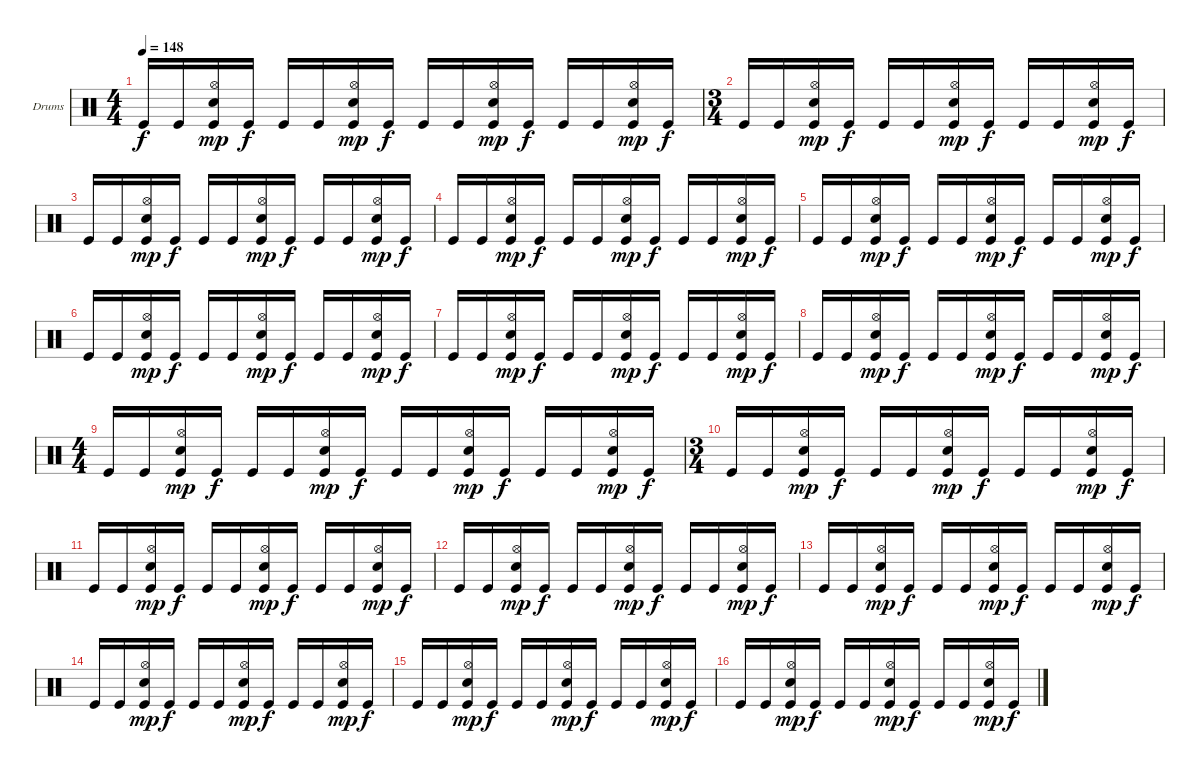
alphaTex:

\bracketExtendMode groupsimilarinstruments
\firstSystemTrackNameOrientation horizontal
\otherSystemsTrackNameOrientation horizontal
\track ("Drumkit" "Drums") {instrument percussion}
\staff {score}
\articulation defaults
\ts (4 4)
\tempo 148
\clef neutral
\ks c "Kick (hit)".16{dy f} "Kick (hit)".16
("Hi-Hat (open)" "Kick (hit)" "Snare (hit) 2").16{dy mp} "Kick (hit)".16{dy f} "Kick (hit)".16 "Kick (hit)".16 ("Hi-Hat (open)" "Kick (hit)" "Snare (hit) 2").16{dy mp} "Kick (hit)".16{dy f} "Kick (hit)".16 "Kick (hit)".16 ("Hi-Hat (open)" "Kick (hit)" "Snare (hit) 2").16{dy mp} "Kick (hit)".16{dy f} "Kick (hit)".16 "Kick (hit)".16 ("Hi-Hat (open)" "Kick (hit)" "Snare (hit) 2").16{dy mp} "Kick (hit)".16{dy f} |
\ts (3 4)
\beaming (8 2 2 2)
"Kick (hit)".16 "Kick (hit)".16 ("Hi-Hat (open)" "Kick (hit)" "Snare (hit) 2").16{dy mp} "Kick (hit)".16{dy f} "Kick (hit)".16 "Kick (hit)".16 ("Hi-Hat (open)" "Kick (hit)" "Snare (hit) 2").16{dy mp} "Kick (hit)".16{dy f} "Kick (hit)".16 "Kick (hit)".16 ("Hi-Hat (open)" "Kick (hit)" "Snare (hit) 2").16{dy mp} "Kick (hit)".16{dy f} |
"Kick (hit)".16 "Kick (hit)".16 ("Hi-Hat (open)" "Kick (hit)" "Snare (hit) 2").16{dy mp} "Kick (hit)".16{dy f} "Kick (hit)".16 "Kick (hit)".16 ("Hi-Hat (open)" "Kick (hit)" "Snare (hit) 2").16{dy mp} "Kick (hit)".16{dy f} "Kick (hit)".16 "Kick (hit)".16 ("Hi-Hat (open)" "Kick (hit)" "Snare (hit) 2").16{dy mp} "Kick (hit)".16{dy f} |
"Kick (hit)".16 "Kick (hit)".16 ("Hi-Hat (open)" "Kick (hit)" "Snare (hit) 2").16{dy mp} "Kick (hit)".16{dy f} "Kick (hit)".16 "Kick (hit)".16 ("Hi-Hat (open)" "Kick (hit)" "Snare (hit) 2").16{dy mp} "Kick (hit)".16{dy f} "Kick (hit)".16 "Kick (hit)".16 ("Hi-Hat (open)" "Kick (hit)" "Snare (hit) 2").16{dy mp} "Kick (hit)".16{dy f} |
"Kick (hit)".16 "Kick (hit)".16 ("Hi-Hat (open)" "Kick (hit)" "Snare (hit) 2").16{dy mp} "Kick (hit)".16{dy f} "Kick (hit)".16 "Kick (hit)".16 ("Hi-Hat (open)" "Kick (hit)" "Snare (hit) 2").16{dy mp} "Kick (hit)".16{dy f} "Kick (hit)".16 "Kick (hit)".16 ("Hi-Hat (open)" "Kick (hit)" "Snare (hit) 2").16{dy mp} "Kick (hit)".16{dy f} |
"Kick (hit)".16 "Kick (hit)".16 ("Hi-Hat (open)" "Kick (hit)" "Snare (hit) 2").16{dy mp} "Kick (hit)".16{dy f} "Kick (hit)".16 "Kick (hit)".16 ("Hi-Hat (open)" "Kick (hit)" "Snare (hit) 2").16{dy mp} "Kick (hit)".16{dy f} "Kick (hit)".16 "Kick (hit)".16 ("Hi-Hat (open)" "Kick (hit)" "Snare (hit) 2").16{dy mp} "Kick (hit)".16{dy f} |
"Kick (hit)".16 "Kick (hit)".16 ("Hi-Hat (open)" "Kick (hit)" "Snare (hit) 2").16{dy mp} "Kick (hit)".16{dy f} "Kick (hit)".16 "Kick (hit)".16 ("Hi-Hat (open)" "Kick (hit)" "Snare (hit) 2").16{dy mp} "Kick (hit)".16{dy f} "Kick (hit)".16 "Kick (hit)".16 ("Hi-Hat (open)" "Kick (hit)" "Snare (hit) 2").16{dy mp} "Kick (hit)".16{dy f} |
"Kick (hit)".16 "Kick (hit)".16 ("Hi-Hat (open)" "Kick (hit)" "Snare (hit) 2").16{dy mp} "Kick (hit)".16{dy f} "Kick (hit)".16 "Kick (hit)".16 ("Hi-Hat (open)" "Kick (hit)" "Snare (hit) 2").16{dy mp} "Kick (hit)".16{dy f} "Kick (hit)".16 "Kick (hit)".16 ("Hi-Hat (open)" "Kick (hit)" "Snare (hit) 2").16{dy mp} "Kick (hit)".16{dy f} |
\ts (4 4)
\beaming (8 2 2 2 2)
"Kick (hit)".16 "Kick (hit)".16 ("Hi-Hat (open)" "Kick (hit)" "Snare (hit) 2").16{dy mp} "Kick (hit)".16{dy f} "Kick (hit)".16 "Kick (hit)".16 ("Hi-Hat (open)" "Kick (hit)" "Snare (hit) 2").16{dy mp} "Kick (hit)".16{dy f} "Kick (hit)".16 "Kick (hit)".16 ("Hi-Hat (open)" "Kick (hit)" "Snare (hit) 2").16{dy mp} "Kick (hit)".16{dy f} "Kick (hit)".16 "Kick (hit)".16 ("Hi-Hat (open)" "Kick (hit)" "Snare (hit) 2").16{dy mp} "Kick (hit)".16{dy f} |
\ts (3 4)
\beaming (8 2 2 2)
"Kick (hit)".16 "Kick (hit)".16 ("Hi-Hat (open)" "Kick (hit)" "Snare (hit) 2").16{dy mp} "Kick (hit)".16{dy f} "Kick (hit)".16 "Kick (hit)".16 ("Hi-Hat (open)" "Kick (hit)" "Snare (hit) 2").16{dy mp} "Kick (hit)".16{dy f} "Kick (hit)".16 "Kick (hit)".16 ("Hi-Hat (open)" "Kick (hit)" "Snare (hit) 2").16{dy mp} "Kick (hit)".16{dy f} |
"Kick (hit)".16 "Kick (hit)".16 ("Hi-Hat (open)" "Kick (hit)" "Snare (hit) 2").16{dy mp} "Kick (hit)".16{dy f} "Kick (hit)".16 "Kick (hit)".16 ("Hi-Hat (open)" "Kick (hit)" "Snare (hit) 2").16{dy mp} "Kick (hit)".16{dy f} "Kick (hit)".16 "Kick (hit)".16 ("Hi-Hat (open)" "Kick (hit)" "Snare (hit) 2").16{dy mp} "Kick (hit)".16{dy f} |
"Kick (hit)".16 "Kick (hit)".16 ("Hi-Hat (open)" "Kick (hit)" "Snare (hit) 2").16{dy mp} "Kick (hit)".16{dy f} "Kick (hit)".16 "Kick (hit)".16 ("Hi-Hat (open)" "Kick (hit)" "Snare (hit) 2").16{dy mp} "Kick (hit)".16{dy f} "Kick (hit)".16 "Kick (hit)".16 ("Hi-Hat (open)" "Kick (hit)" "Snare (hit) 2").16{dy mp} "Kick (hit)".16{dy f} |
"Kick (hit)".16 "Kick (hit)".16 ("Hi-Hat (open)" "Kick (hit)" "Snare (hit) 2").16{dy mp} "Kick (hit)".16{dy f} "Kick (hit)".16 "Kick (hit)".16 ("Hi-Hat (open)" "Kick (hit)" "Snare (hit) 2").16{dy mp} "Kick (hit)".16{dy f} "Kick (hit)".16 "Kick (hit)".16 ("Hi-Hat (open)" "Kick (hit)" "Snare (hit) 2").16{dy mp} "Kick (hit)".16{dy f} |
"Kick (hit)".16 "Kick (hit)".16 ("Hi-Hat (open)" "Kick (hit)" "Snare (hit) 2").16{dy mp} "Kick (hit)".16{dy f} "Kick (hit)".16 "Kick (hit)".16 ("Hi-Hat (open)" "Kick (hit)" "Snare (hit) 2").16{dy mp} "Kick (hit)".16{dy f} "Kick (hit)".16 "Kick (hit)".16 ("Hi-Hat (open)" "Kick (hit)" "Snare (hit) 2").16{dy mp} "Kick (hit)".16{dy f} |
"Kick (hit)".16 "Kick (hit)".16 ("Hi-Hat (open)" "Kick (hit)" "Snare (hit) 2").16{dy mp} "Kick (hit)".16{dy f} "Kick (hit)".16 "Kick (hit)".16 ("Hi-Hat (open)" "Kick (hit)" "Snare (hit) 2").16{dy mp} "Kick (hit)".16{dy f} "Kick (hit)".16 "Kick (hit)".16 ("Hi-Hat (open)" "Kick (hit)" "Snare (hit) 2").16{dy mp} "Kick (hit)".16{dy f} |
"Kick (hit)".16 "Kick (hit)".16 ("Hi-Hat (open)" "Kick (hit)" "Snare (hit) 2").16{dy mp} "Kick (hit)".16{dy f} "Kick (hit)".16 "Kick (hit)".16 ("Hi-Hat (open)" "Kick (hit)" "Snare (hit) 2").16{dy mp} "Kick (hit)".16{dy f} "Kick (hit)".16 "Kick (hit)".16 ("Hi-Hat (open)" "Kick (hit)" "Snare (hit) 2").16{dy mp} "Kick (hit)".16{dy f}
